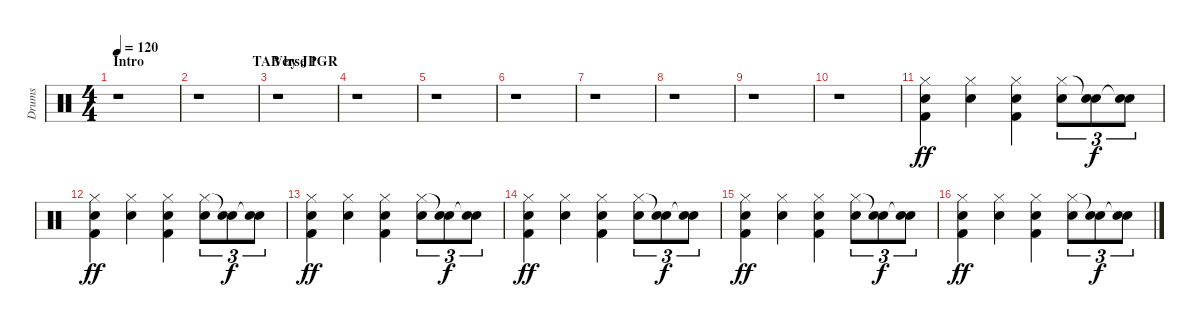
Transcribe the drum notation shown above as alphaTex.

\track ("Drums" "Drums") {instrument percussion}
\staff {score}
\articulation defaults
\ts (4 4)
\section ("" "Intro                               TAB by JPGR")
\tempo 120
\clef neutral
\ks c
r.1{dy ff} |
r.1 |
\section ("" "Verse 1")
r.1 |
r.1 |
r.1 |
r.1 |
r.1 |
r.1 |
r.1 |
r.1 |
("Hi-Hat (closed)" "Snare (hit) 2" "Kick (hit) 2").4 ("Hi-Hat (closed)" "Snare (hit) 2").4 ("Hi-Hat (closed)" "Snare (hit) 2" "Kick (hit) 2").4 ("Hi-Hat (closed)" "Snare (hit) 2").8{tu (3 2)} ("Snare (hit)"{t} "Snare (hit) 2").8{tu (3 2) dy f} ("Snare (hit)"{t} "Snare (hit) 2").8{tu (3 2)} |
("Hi-Hat (closed)" "Snare (hit) 2" "Kick (hit) 2").4{dy ff} ("Hi-Hat (closed)" "Snare (hit) 2").4 ("Hi-Hat (closed)" "Snare (hit) 2" "Kick (hit) 2").4 ("Hi-Hat (closed)" "Snare (hit) 2").8{tu (3 2)} ("Snare (hit)"{t} "Snare (hit) 2").8{tu (3 2) dy f} ("Snare (hit)"{t} "Snare (hit) 2").8{tu (3 2)} |
("Hi-Hat (closed)" "Snare (hit) 2" "Kick (hit) 2").4{dy ff} ("Hi-Hat (closed)" "Snare (hit) 2").4 ("Hi-Hat (closed)" "Snare (hit) 2" "Kick (hit) 2").4 ("Hi-Hat (closed)" "Snare (hit) 2").8{tu (3 2)} ("Snare (hit)"{t} "Snare (hit) 2").8{tu (3 2) dy f} ("Snare (hit)"{t} "Snare (hit) 2").8{tu (3 2)} |
("Hi-Hat (closed)" "Snare (hit) 2" "Kick (hit) 2").4{dy ff} ("Hi-Hat (closed)" "Snare (hit) 2").4 ("Hi-Hat (closed)" "Snare (hit) 2" "Kick (hit) 2").4 ("Hi-Hat (closed)" "Snare (hit) 2").8{tu (3 2)} ("Snare (hit)"{t} "Snare (hit) 2").8{tu (3 2) dy f} ("Snare (hit)"{t} "Snare (hit) 2").8{tu (3 2)} |
("Hi-Hat (closed)" "Snare (hit) 2" "Kick (hit) 2").4{dy ff} ("Hi-Hat (closed)" "Snare (hit) 2").4 ("Hi-Hat (closed)" "Snare (hit) 2" "Kick (hit) 2").4 ("Hi-Hat (closed)" "Snare (hit) 2").8{tu (3 2)} ("Snare (hit)"{t} "Snare (hit) 2").8{tu (3 2) dy f} ("Snare (hit)"{t} "Snare (hit) 2").8{tu (3 2)} |
("Hi-Hat (closed)" "Snare (hit) 2" "Kick (hit) 2").4{dy ff} ("Hi-Hat (closed)" "Snare (hit) 2").4 ("Hi-Hat (closed)" "Snare (hit) 2" "Kick (hit) 2").4 ("Hi-Hat (closed)" "Snare (hit) 2").8{tu (3 2)} ("Snare (hit)"{t} "Snare (hit) 2").8{tu (3 2) dy f} ("Snare (hit)"{t} "Snare (hit) 2").8{tu (3 2)}
